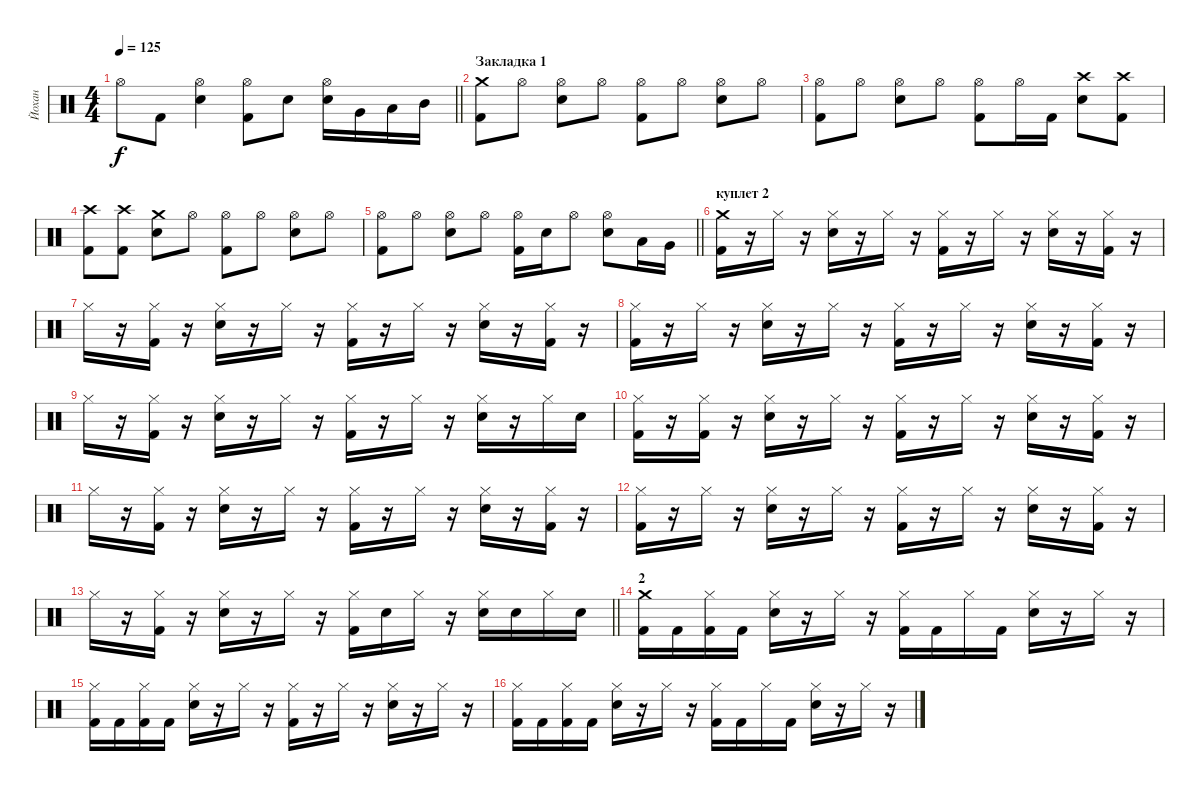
\track ("Йохан" "Йохан") {instrument percussion}
\staff {score}
\articulation defaults
\ts (4 4)
\tempo 125
\clef neutral
\barLineRight lightlight
\ks c "Hi-Hat (open)".8{dy f} "Kick (hit) 2".8
("Hi-Hat (open)" "Snare (hit) 2").4 ("Hi-Hat (open)" "Kick (hit) 2").8 "Snare (hit) 2".8 ("Hi-Hat (open)" "Snare (hit) 2").16 "Very Low Tom (hit)".16 "Low Tom (hit)".16 "Mid Tom (hit)".16 |
\section ("" "Закладка 1")
("Crash medium (hit)" "Kick (hit) 2").8 "Hi-Hat (open)".8 ("Hi-Hat (open)" "Snare (hit) 2").8 "Hi-Hat (open)".8 ("Hi-Hat (open)" "Kick (hit) 2").8 "Hi-Hat (open)".8 ("Hi-Hat (open)" "Snare (hit) 2").8 "Hi-Hat (open)".8 |
("Hi-Hat (open)" "Kick (hit) 2").8 "Hi-Hat (open)".8 ("Hi-Hat (open)" "Snare (hit) 2").8 "Hi-Hat (open)".8 ("Hi-Hat (open)" "Kick (hit) 2").8 "Hi-Hat (open)".16 "Kick (hit) 2".16 ("Crash high (hit)" "Snare (hit) 2").8 ("Crash high (hit)" "Kick (hit) 2").8 |
("Crash high (hit)" "Kick (hit) 2").8 ("Crash high (hit)" "Kick (hit) 2").8 ("Crash medium (hit)" "Snare (hit) 2").8 "Hi-Hat (open)".8 ("Hi-Hat (open)" "Kick (hit) 2").8 "Hi-Hat (open)".8 ("Hi-Hat (open)" "Snare (hit) 2").8 "Hi-Hat (open)".8 |
\barLineRight lightlight
("Hi-Hat (open)" "Kick (hit) 2").8 "Hi-Hat (open)".8 ("Hi-Hat (open)" "Snare (hit) 2").8 "Hi-Hat (open)".8 ("Hi-Hat (open)" "Kick (hit) 2").16 "Snare (hit) 2".16 "Hi-Hat (open)".8 ("Hi-Hat (open)" "Snare (hit) 2").8 "Low Floor Tom (hit)".16 "Very Low Tom (hit)".16 |
\section ("" "куплет 2")
("Crash medium (hit)" "Kick (hit) 2").16 r.16 "Hi-Hat (closed)".16 r.16 ("Hi-Hat (closed)" "Snare (hit) 2").16 r.16 "Hi-Hat (closed)".16 r.16 ("Hi-Hat (closed)" "Kick (hit) 2").16 r.16 "Hi-Hat (closed)".16 r.16 ("Hi-Hat (closed)" "Snare (hit) 2").16 r.16 ("Hi-Hat (closed)" "Kick (hit) 2").16 r.16 |
"Hi-Hat (closed)".16 r.16 ("Hi-Hat (closed)" "Kick (hit) 2").16 r.16 ("Hi-Hat (closed)" "Snare (hit) 2").16 r.16 "Hi-Hat (closed)".16 r.16 ("Hi-Hat (closed)" "Kick (hit) 2").16 r.16 "Hi-Hat (closed)".16 r.16 ("Hi-Hat (closed)" "Snare (hit) 2").16 r.16 ("Hi-Hat (closed)" "Kick (hit) 2").16 r.16 |
("Hi-Hat (closed)" "Kick (hit) 2").16 r.16 "Hi-Hat (closed)".16 r.16 ("Hi-Hat (closed)" "Snare (hit) 2").16 r.16 "Hi-Hat (closed)".16 r.16 ("Hi-Hat (closed)" "Kick (hit) 2").16 r.16 "Hi-Hat (closed)".16 r.16 ("Hi-Hat (closed)" "Snare (hit) 2").16 r.16 ("Hi-Hat (closed)" "Kick (hit) 2").16 r.16 |
"Hi-Hat (closed)".16 r.16 ("Hi-Hat (closed)" "Kick (hit) 2").16 r.16 ("Hi-Hat (closed)" "Snare (hit) 2").16 r.16 "Hi-Hat (closed)".16 r.16 ("Hi-Hat (closed)" "Kick (hit) 2").16 r.16 "Hi-Hat (closed)".16 r.16 ("Hi-Hat (closed)" "Snare (hit) 2").16 r.16 "Hi-Hat (closed)".16 "Snare (hit) 2".16 |
("Hi-Hat (closed)" "Kick (hit) 2").16 r.16 ("Hi-Hat (closed)" "Kick (hit) 2").16 r.16 ("Hi-Hat (closed)" "Snare (hit) 2").16 r.16 "Hi-Hat (closed)".16 r.16 ("Hi-Hat (closed)" "Kick (hit) 2").16 r.16 "Hi-Hat (closed)".16 r.16 ("Hi-Hat (closed)" "Snare (hit) 2").16 r.16 ("Hi-Hat (closed)" "Kick (hit) 2").16 r.16 |
"Hi-Hat (closed)".16 r.16 ("Hi-Hat (closed)" "Kick (hit) 2").16 r.16 ("Hi-Hat (closed)" "Snare (hit) 2").16 r.16 "Hi-Hat (closed)".16 r.16 ("Hi-Hat (closed)" "Kick (hit) 2").16 r.16 "Hi-Hat (closed)".16 r.16 ("Hi-Hat (closed)" "Snare (hit) 2").16 r.16 ("Hi-Hat (closed)" "Kick (hit) 2").16 r.16 |
("Hi-Hat (closed)" "Kick (hit) 2").16 r.16 "Hi-Hat (closed)".16 r.16 ("Hi-Hat (closed)" "Snare (hit) 2").16 r.16 "Hi-Hat (closed)".16 r.16 ("Hi-Hat (closed)" "Kick (hit) 2").16 r.16 "Hi-Hat (closed)".16 r.16 ("Hi-Hat (closed)" "Snare (hit) 2").16 r.16 ("Hi-Hat (closed)" "Kick (hit) 2").16 r.16 |
\barLineRight lightlight "Hi-Hat (closed)".16
r.16 ("Hi-Hat (closed)" "Kick (hit) 2").16 r.16 ("Hi-Hat (closed)" "Snare (hit) 2").16 r.16 "Hi-Hat (closed)".16 r.16 ("Hi-Hat (closed)" "Kick (hit) 2").16 "Snare (hit) 2".16 "Hi-Hat (closed)".16 r.16 ("Hi-Hat (closed)" "Snare (hit) 2").16 "Snare (hit) 2".16 "Hi-Hat (closed)".16 "Snare (hit) 2".16 |
\section ("" "2")
("Crash medium (hit)" "Kick (hit) 2").16 "Kick (hit) 2".16 ("Hi-Hat (closed)" "Kick (hit) 2").16 "Kick (hit) 2".16 ("Hi-Hat (closed)" "Snare (hit) 2").16 r.16 "Hi-Hat (closed)".16 r.16 ("Hi-Hat (closed)" "Kick (hit) 2").16 "Kick (hit) 2".16 "Hi-Hat (closed)".16 "Kick (hit) 2".16 ("Hi-Hat (closed)" "Snare (hit) 2").16 r.16 "Hi-Hat (closed)".16 r.16 |
("Hi-Hat (closed)" "Kick (hit) 2").16 "Kick (hit) 2".16 ("Hi-Hat (closed)" "Kick (hit) 2").16 "Kick (hit) 2".16 ("Hi-Hat (closed)" "Snare (hit) 2").16 r.16 "Hi-Hat (closed)".16 r.16 ("Hi-Hat (closed)" "Kick (hit) 2").16 r.16 "Hi-Hat (closed)".16 r.16 ("Hi-Hat (closed)" "Snare (hit) 2").16 r.16 "Hi-Hat (closed)".16 r.16 |
("Hi-Hat (closed)" "Kick (hit) 2").16 "Kick (hit) 2".16 ("Hi-Hat (closed)" "Kick (hit) 2").16 "Kick (hit) 2".16 ("Hi-Hat (closed)" "Snare (hit) 2").16 r.16 "Hi-Hat (closed)".16 r.16 ("Hi-Hat (closed)" "Kick (hit) 2").16 "Kick (hit) 2".16 "Hi-Hat (closed)".16 "Kick (hit) 2".16 ("Hi-Hat (closed)" "Snare (hit) 2").16 r.16 "Hi-Hat (closed)".16 r.16
